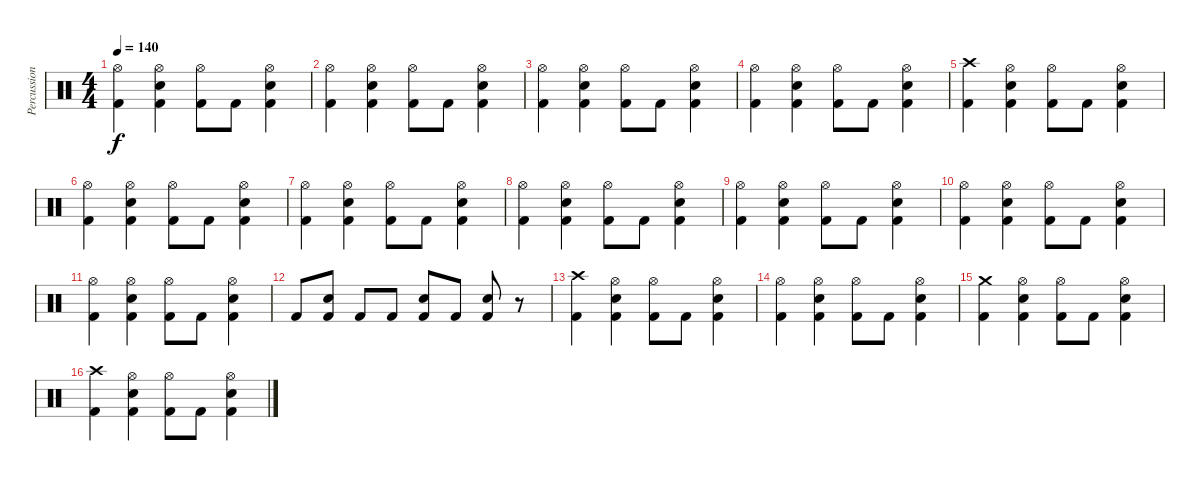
\track ("Percussion" "Percussion") {instrument percussion}
\staff {score}
\articulation defaults
\ts (4 4)
\tempo 140
\clef neutral
\ks c
("Hi-Hat (open)" "Kick (hit) 2").4{dy f} ("Snare (hit) 2" "Hi-Hat (open)" "Kick (hit) 2").4 ("Hi-Hat (open)" "Kick (hit) 2").8 "Kick (hit) 2".8 ("Snare (hit) 2" "Hi-Hat (open)" "Kick (hit) 2").4 |
("Hi-Hat (open)" "Kick (hit) 2").4 ("Snare (hit) 2" "Hi-Hat (open)" "Kick (hit) 2").4 ("Hi-Hat (open)" "Kick (hit) 2").8 "Kick (hit) 2".8 ("Snare (hit) 2" "Hi-Hat (open)" "Kick (hit) 2").4 |
("Hi-Hat (open)" "Kick (hit) 2").4 ("Snare (hit) 2" "Hi-Hat (open)" "Kick (hit) 2").4 ("Hi-Hat (open)" "Kick (hit) 2").8 "Kick (hit) 2".8 ("Snare (hit) 2" "Hi-Hat (open)" "Kick (hit) 2").4 |
("Hi-Hat (open)" "Kick (hit) 2").4 ("Snare (hit) 2" "Hi-Hat (open)" "Kick (hit) 2").4 ("Hi-Hat (open)" "Kick (hit) 2").8 "Kick (hit) 2".8 ("Snare (hit) 2" "Hi-Hat (open)" "Kick (hit) 2").4 |
("Crash high (hit)" "Kick (hit) 2").4 ("Snare (hit) 2" "Hi-Hat (open)" "Kick (hit) 2").4 ("Hi-Hat (open)" "Kick (hit) 2").8 "Kick (hit) 2".8 ("Snare (hit) 2" "Hi-Hat (open)" "Kick (hit) 2").4 |
("Hi-Hat (open)" "Kick (hit) 2").4 ("Snare (hit) 2" "Hi-Hat (open)" "Kick (hit) 2").4 ("Hi-Hat (open)" "Kick (hit) 2").8 "Kick (hit) 2".8 ("Snare (hit) 2" "Hi-Hat (open)" "Kick (hit) 2").4 |
("Hi-Hat (open)" "Kick (hit) 2").4 ("Snare (hit) 2" "Hi-Hat (open)" "Kick (hit) 2").4 ("Hi-Hat (open)" "Kick (hit) 2").8 "Kick (hit) 2".8 ("Snare (hit) 2" "Hi-Hat (open)" "Kick (hit) 2").4 |
("Hi-Hat (open)" "Kick (hit) 2").4 ("Snare (hit) 2" "Hi-Hat (open)" "Kick (hit) 2").4 ("Hi-Hat (open)" "Kick (hit) 2").8 "Kick (hit) 2".8 ("Snare (hit) 2" "Hi-Hat (open)" "Kick (hit) 2").4 |
("Hi-Hat (open)" "Kick (hit) 2").4 ("Snare (hit) 2" "Hi-Hat (open)" "Kick (hit) 2").4 ("Hi-Hat (open)" "Kick (hit) 2").8 "Kick (hit) 2".8 ("Snare (hit) 2" "Hi-Hat (open)" "Kick (hit) 2").4 |
("Hi-Hat (open)" "Kick (hit) 2").4 ("Snare (hit) 2" "Hi-Hat (open)" "Kick (hit) 2").4 ("Hi-Hat (open)" "Kick (hit) 2").8 "Kick (hit) 2".8 ("Snare (hit) 2" "Hi-Hat (open)" "Kick (hit) 2").4 |
("Hi-Hat (open)" "Kick (hit) 2").4 ("Snare (hit) 2" "Hi-Hat (open)" "Kick (hit) 2").4 ("Hi-Hat (open)" "Kick (hit) 2").8 "Kick (hit) 2".8 ("Snare (hit) 2" "Hi-Hat (open)" "Kick (hit) 2").4 |
"Kick (hit) 2".8 ("Snare (hit) 2" "Kick (hit) 2").8 "Kick (hit) 2".8 "Kick (hit) 2".8 ("Snare (hit) 2" "Kick (hit) 2").8 "Kick (hit) 2".8 ("Snare (hit) 2" "Kick (hit) 2").8 r.8 |
("Crash high (hit)" "Kick (hit) 2").4 ("Snare (hit) 2" "Hi-Hat (open)" "Kick (hit) 2").4 ("Hi-Hat (open)" "Kick (hit) 2").8 "Kick (hit) 2".8 ("Snare (hit) 2" "Hi-Hat (open)" "Kick (hit) 2").4 |
("Hi-Hat (open)" "Kick (hit) 2").4 ("Snare (hit) 2" "Hi-Hat (open)" "Kick (hit) 2").4 ("Hi-Hat (open)" "Kick (hit) 2").8 "Kick (hit) 2".8 ("Snare (hit) 2" "Hi-Hat (open)" "Kick (hit) 2").4 |
("Crash medium (hit)" "Kick (hit) 2").4 ("Snare (hit) 2" "Hi-Hat (open)" "Kick (hit) 2").4 ("Hi-Hat (open)" "Kick (hit) 2").8 "Kick (hit) 2".8 ("Snare (hit) 2" "Hi-Hat (open)" "Kick (hit) 2").4 |
("Crash high (hit)" "Kick (hit) 2").4 ("Snare (hit) 2" "Hi-Hat (open)" "Kick (hit) 2").4 ("Hi-Hat (open)" "Kick (hit) 2").8 "Kick (hit) 2".8 ("Snare (hit) 2" "Hi-Hat (open)" "Kick (hit) 2").4
